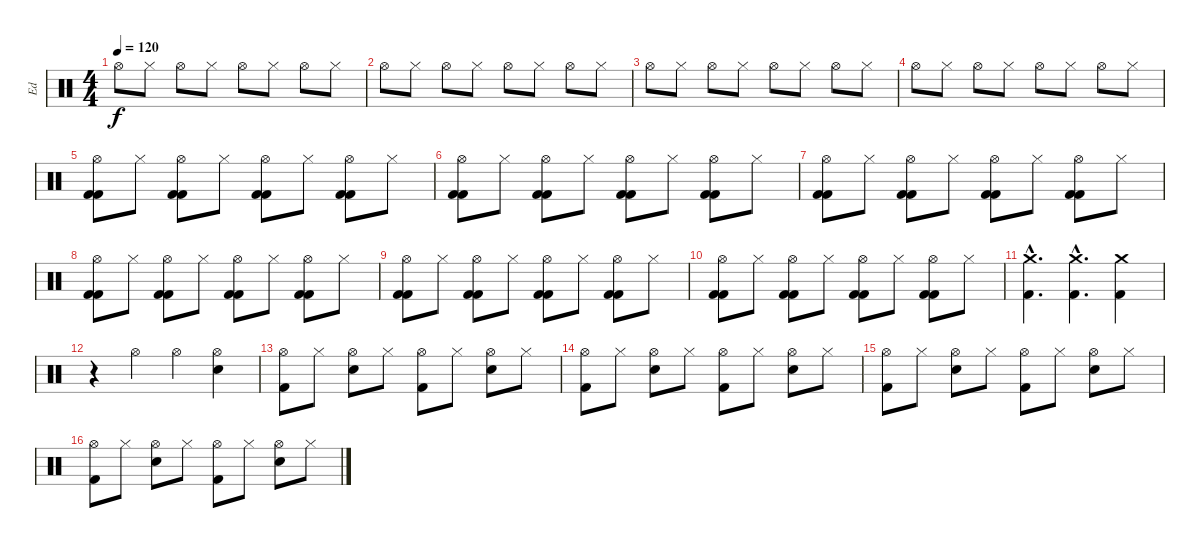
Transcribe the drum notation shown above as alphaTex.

\track ("Ed" "Ed") {instrument percussion}
\staff {score}
\articulation defaults
\ts (4 4)
\tempo 120
\clef neutral
\ks c "Hi-Hat (open)".8{dy f} "Hi-Hat (closed)".8 "Hi-Hat (open)".8 "Hi-Hat (closed)".8 "Hi-Hat (open)".8 "Hi-Hat (closed)".8 "Hi-Hat (open)".8 "Hi-Hat (closed)".8
|
"Hi-Hat (open)".8 "Hi-Hat (closed)".8 "Hi-Hat (open)".8 "Hi-Hat (closed)".8 "Hi-Hat (open)".8 "Hi-Hat (closed)".8 "Hi-Hat (open)".8 "Hi-Hat (closed)".8 |
"Hi-Hat (open)".8 "Hi-Hat (closed)".8 "Hi-Hat (open)".8 "Hi-Hat (closed)".8 "Hi-Hat (open)".8 "Hi-Hat (closed)".8 "Hi-Hat (open)".8 "Hi-Hat (closed)".8 |
"Hi-Hat (open)".8 "Hi-Hat (closed)".8 "Hi-Hat (open)".8 "Hi-Hat (closed)".8 "Hi-Hat (open)".8 "Hi-Hat (closed)".8 "Hi-Hat (open)".8 "Hi-Hat (closed)".8 |
("Kick (hit) 2" "Kick (hit) 2" "Hi-Hat (open)").8 "Hi-Hat (closed)".8 ("Kick (hit) 2" "Kick (hit) 2" "Hi-Hat (open)").8 "Hi-Hat (closed)".8 ("Kick (hit) 2" "Kick (hit) 2" "Hi-Hat (open)").8 "Hi-Hat (closed)".8 ("Kick (hit) 2" "Kick (hit) 2" "Hi-Hat (open)").8 "Hi-Hat (closed)".8 |
("Kick (hit) 2" "Kick (hit) 2" "Hi-Hat (open)").8 "Hi-Hat (closed)".8 ("Kick (hit) 2" "Kick (hit) 2" "Hi-Hat (open)").8 "Hi-Hat (closed)".8 ("Kick (hit) 2" "Kick (hit) 2" "Hi-Hat (open)").8 "Hi-Hat (closed)".8 ("Kick (hit) 2" "Kick (hit) 2" "Hi-Hat (open)").8 "Hi-Hat (closed)".8 |
("Kick (hit) 2" "Kick (hit) 2" "Hi-Hat (open)").8 "Hi-Hat (closed)".8 ("Kick (hit) 2" "Kick (hit) 2" "Hi-Hat (open)").8 "Hi-Hat (closed)".8 ("Kick (hit) 2" "Kick (hit) 2" "Hi-Hat (open)").8 "Hi-Hat (closed)".8 ("Kick (hit) 2" "Kick (hit) 2" "Hi-Hat (open)").8 "Hi-Hat (closed)".8 |
("Kick (hit) 2" "Kick (hit) 2" "Hi-Hat (open)").8 "Hi-Hat (closed)".8 ("Kick (hit) 2" "Kick (hit) 2" "Hi-Hat (open)").8 "Hi-Hat (closed)".8 ("Kick (hit) 2" "Kick (hit) 2" "Hi-Hat (open)").8 "Hi-Hat (closed)".8 ("Kick (hit) 2" "Kick (hit) 2" "Hi-Hat (open)").8 "Hi-Hat (closed)".8 |
("Kick (hit) 2" "Kick (hit) 2" "Hi-Hat (open)").8 "Hi-Hat (closed)".8 ("Kick (hit) 2" "Kick (hit) 2" "Hi-Hat (open)").8 "Hi-Hat (closed)".8 ("Kick (hit) 2" "Kick (hit) 2" "Hi-Hat (open)").8 "Hi-Hat (closed)".8 ("Kick (hit) 2" "Kick (hit) 2" "Hi-Hat (open)").8 "Hi-Hat (closed)".8 |
("Kick (hit) 2" "Kick (hit) 2" "Hi-Hat (open)").8 "Hi-Hat (closed)".8 ("Kick (hit) 2" "Kick (hit) 2" "Hi-Hat (open)").8 "Hi-Hat (closed)".8 ("Kick (hit) 2" "Kick (hit) 2" "Hi-Hat (open)").8 "Hi-Hat (closed)".8 ("Kick (hit) 2" "Kick (hit) 2" "Hi-Hat (open)").8 "Hi-Hat (closed)".8 |
("Crash medium (hit)"{hac} "Kick (hit) 2"{hac}).4{d} ("Crash medium (hit)"{hac} "Kick (hit) 2"{hac}).4{d} ("Crash medium (hit)" "Kick (hit) 2").4 |
r.4 "Hi-Hat (open)".4 "Hi-Hat (open)".4 ("Snare (hit) 2" "Hi-Hat (open)").4 |
("Hi-Hat (open)" "Kick (hit) 2").8 "Hi-Hat (closed)".8 ("Hi-Hat (open)" "Snare (hit) 2").8 "Hi-Hat (closed)".8 ("Hi-Hat (open)" "Kick (hit) 2").8 "Hi-Hat (closed)".8 ("Hi-Hat (open)" "Snare (hit) 2").8 "Hi-Hat (closed)".8 |
("Hi-Hat (open)" "Kick (hit) 2").8 "Hi-Hat (closed)".8 ("Hi-Hat (open)" "Snare (hit) 2").8 "Hi-Hat (closed)".8 ("Hi-Hat (open)" "Kick (hit) 2").8 "Hi-Hat (closed)".8 ("Hi-Hat (open)" "Snare (hit) 2").8 "Hi-Hat (closed)".8 |
("Hi-Hat (open)" "Kick (hit) 2").8 "Hi-Hat (closed)".8 ("Hi-Hat (open)" "Snare (hit) 2").8 "Hi-Hat (closed)".8 ("Hi-Hat (open)" "Kick (hit) 2").8 "Hi-Hat (closed)".8 ("Hi-Hat (open)" "Snare (hit) 2").8 "Hi-Hat (closed)".8 |
("Hi-Hat (open)" "Kick (hit) 2").8 "Hi-Hat (closed)".8 ("Hi-Hat (open)" "Snare (hit) 2").8 "Hi-Hat (closed)".8 ("Hi-Hat (open)" "Kick (hit) 2").8 "Hi-Hat (closed)".8 ("Hi-Hat (open)" "Snare (hit) 2").8 "Hi-Hat (closed)".8
